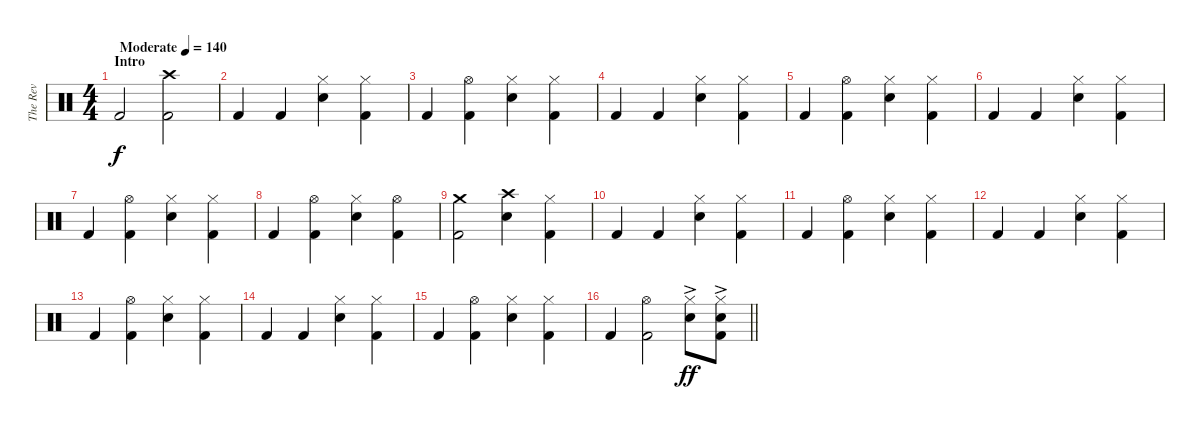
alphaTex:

\track ("The Rev" "The Rev") {instrument percussion}
\staff {score}
\articulation defaults
\ts (4 4)
\section ("" "Intro")
\tempo (140 "Moderate")
\clef neutral
\ks c "Kick (hit) 2".2{dy f}
("Crash high (hit)" "Kick (hit) 2").2 |
"Kick (hit) 2".4 "Kick (hit) 2".4 ("Hi-Hat (closed)" "Snare (hit) 2").4 ("Hi-Hat (closed)" "Kick (hit) 2").4 |
"Kick (hit) 2".4 ("Hi-Hat (open)" "Kick (hit) 2").4 ("Hi-Hat (closed)" "Snare (hit) 2").4 ("Hi-Hat (closed)" "Kick (hit) 2").4 |
"Kick (hit) 2".4 "Kick (hit) 2".4 ("Hi-Hat (closed)" "Snare (hit) 2").4 ("Hi-Hat (closed)" "Kick (hit) 2").4 |
"Kick (hit) 2".4 ("Hi-Hat (open)" "Kick (hit) 2").4 ("Hi-Hat (closed)" "Snare (hit) 2").4 ("Hi-Hat (closed)" "Kick (hit) 2").4 |
"Kick (hit) 2".4 "Kick (hit) 2".4 ("Hi-Hat (closed)" "Snare (hit) 2").4 ("Hi-Hat (closed)" "Kick (hit) 2").4 |
"Kick (hit) 2".4 ("Hi-Hat (open)" "Kick (hit) 2").4 ("Hi-Hat (closed)" "Snare (hit) 2").4 ("Hi-Hat (closed)" "Kick (hit) 2").4 |
"Kick (hit) 2".4 ("Hi-Hat (open)" "Kick (hit) 2").4 ("Hi-Hat (closed)" "Snare (hit) 2").4 ("Hi-Hat (open)" "Kick (hit) 2").4 |
("Crash medium (hit)" "Kick (hit) 2").2 ("Crash high (hit)" "Snare (hit) 2").4 ("Hi-Hat (closed)" "Kick (hit) 2").4 |
"Kick (hit) 2".4 "Kick (hit) 2".4 ("Hi-Hat (closed)" "Snare (hit) 2").4 ("Hi-Hat (closed)" "Kick (hit) 2").4 |
"Kick (hit) 2".4 ("Hi-Hat (open)" "Kick (hit) 2").4 ("Hi-Hat (closed)" "Snare (hit) 2").4 ("Hi-Hat (closed)" "Kick (hit) 2").4 |
"Kick (hit) 2".4 "Kick (hit) 2".4 ("Hi-Hat (closed)" "Snare (hit) 2").4 ("Hi-Hat (closed)" "Kick (hit) 2").4 |
"Kick (hit) 2".4 ("Hi-Hat (open)" "Kick (hit) 2").4 ("Hi-Hat (closed)" "Snare (hit) 2").4 ("Hi-Hat (closed)" "Kick (hit) 2").4 |
"Kick (hit) 2".4 "Kick (hit) 2".4 ("Hi-Hat (closed)" "Snare (hit) 2").4 ("Hi-Hat (closed)" "Kick (hit) 2").4 |
"Kick (hit) 2".4 ("Hi-Hat (open)" "Kick (hit) 2").4 ("Hi-Hat (closed)" "Snare (hit) 2").4 ("Hi-Hat (closed)" "Kick (hit) 2").4 |
\barLineRight lightlight "Kick (hit) 2".4
("Hi-Hat (open)" "Kick (hit) 2").2 ("Hi-Hat (closed)" "Snare (hit) 2"{ac}).8{dy ff} ("Hi-Hat (closed)" "Snare (hit) 2"{ac} "Kick (hit) 2").8
